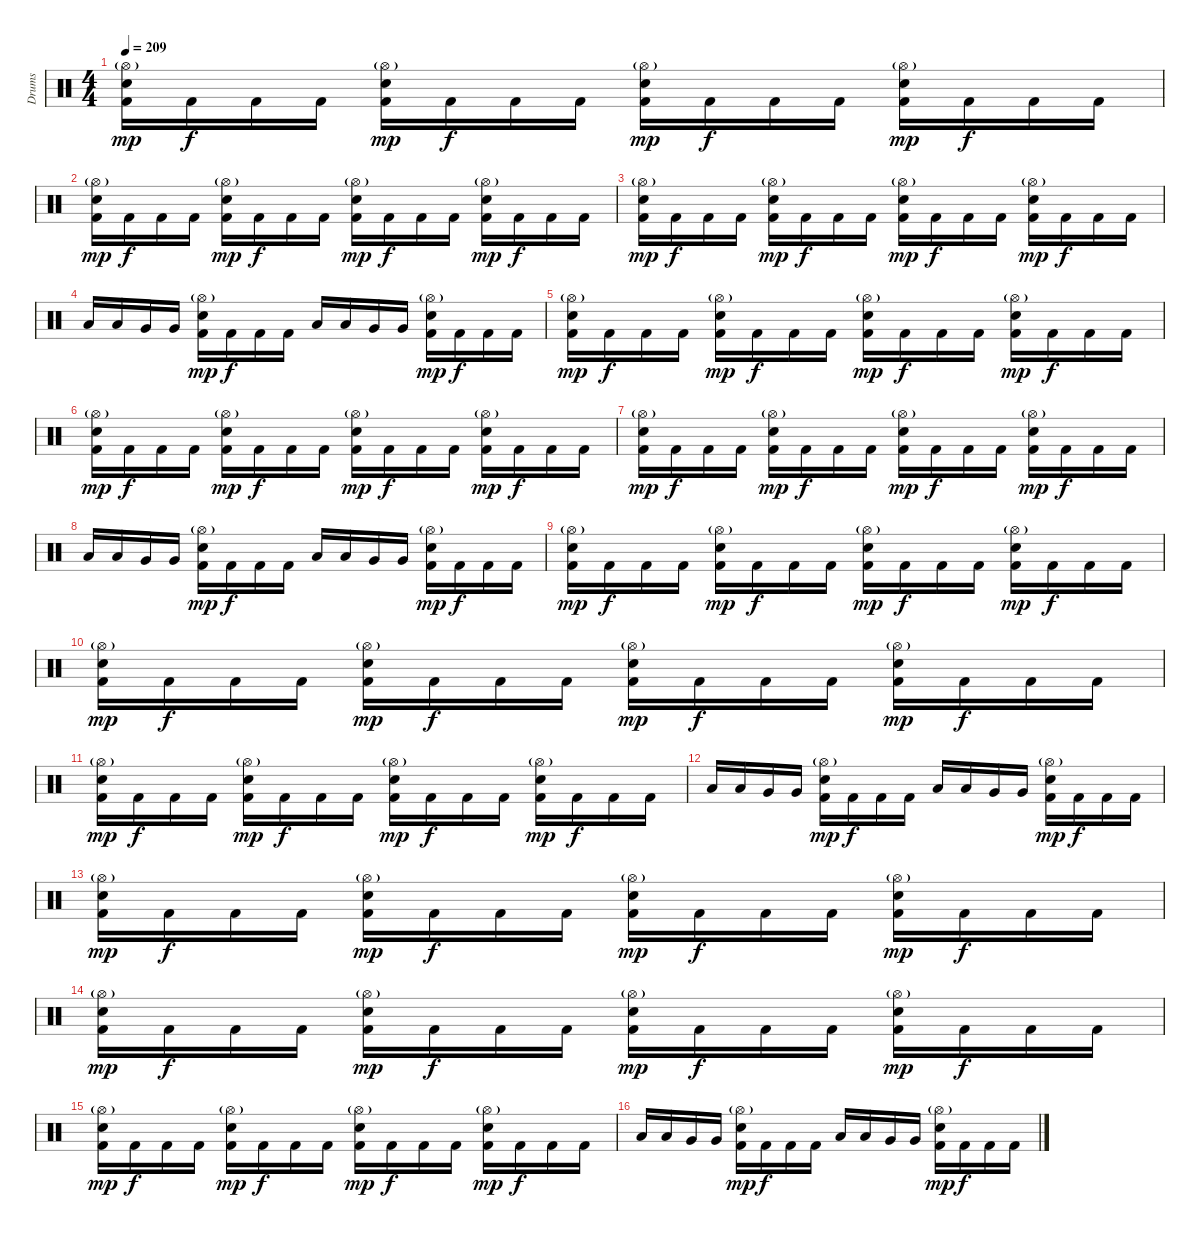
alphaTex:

\track ("Drums" "Drums") {instrument percussion}
\staff {score}
\articulation defaults
\ts (4 4)
\tempo 209
\clef neutral
\ks c
("Hi-Hat (open)"{g} "Snare (hit) 2" "Kick (hit) 2").16{dy mp} "Kick (hit) 2".16{dy f} "Kick (hit) 2".16 "Kick (hit) 2".16 ("Hi-Hat (open)"{g} "Snare (hit) 2" "Kick (hit) 2").16{dy mp} "Kick (hit) 2".16{dy f} "Kick (hit) 2".16 "Kick (hit) 2".16 ("Hi-Hat (open)"{g} "Snare (hit) 2" "Kick (hit) 2").16{dy mp} "Kick (hit) 2".16{dy f} "Kick (hit) 2".16 "Kick (hit) 2".16 ("Hi-Hat (open)"{g} "Snare (hit) 2" "Kick (hit) 2").16{dy mp} "Kick (hit) 2".16{dy f} "Kick (hit) 2".16 "Kick (hit) 2".16 |
("Hi-Hat (open)"{g} "Snare (hit) 2" "Kick (hit) 2").16{dy mp} "Kick (hit) 2".16{dy f} "Kick (hit) 2".16 "Kick (hit) 2".16 ("Hi-Hat (open)"{g} "Snare (hit) 2" "Kick (hit) 2").16{dy mp} "Kick (hit) 2".16{dy f} "Kick (hit) 2".16 "Kick (hit) 2".16 ("Hi-Hat (open)"{g} "Snare (hit) 2" "Kick (hit) 2").16{dy mp} "Kick (hit) 2".16{dy f} "Kick (hit) 2".16 "Kick (hit) 2".16 ("Hi-Hat (open)"{g} "Snare (hit) 2" "Kick (hit) 2").16{dy mp} "Kick (hit) 2".16{dy f} "Kick (hit) 2".16 "Kick (hit) 2".16 |
("Hi-Hat (open)"{g} "Snare (hit) 2" "Kick (hit) 2").16{dy mp} "Kick (hit) 2".16{dy f} "Kick (hit) 2".16 "Kick (hit) 2".16 ("Hi-Hat (open)"{g} "Snare (hit) 2" "Kick (hit) 2").16{dy mp} "Kick (hit) 2".16{dy f} "Kick (hit) 2".16 "Kick (hit) 2".16 ("Hi-Hat (open)"{g} "Snare (hit) 2" "Kick (hit) 2").16{dy mp} "Kick (hit) 2".16{dy f} "Kick (hit) 2".16 "Kick (hit) 2".16 ("Hi-Hat (open)"{g} "Snare (hit) 2" "Kick (hit) 2").16{dy mp} "Kick (hit) 2".16{dy f} "Kick (hit) 2".16 "Kick (hit) 2".16 |
"Low Tom (hit)".16 "Low Tom (hit)".16 "Very Low Tom (hit)".16 "Very Low Tom (hit)".16 ("Hi-Hat (open)"{g} "Snare (hit) 2" "Kick (hit) 2").16{dy mp} "Kick (hit) 2".16{dy f} "Kick (hit) 2".16 "Kick (hit) 2".16 "Low Tom (hit)".16 "Low Tom (hit)".16 "Very Low Tom (hit)".16 "Very Low Tom (hit)".16 ("Hi-Hat (open)"{g} "Snare (hit) 2" "Kick (hit) 2").16{dy mp} "Kick (hit) 2".16{dy f} "Kick (hit) 2".16 "Kick (hit) 2".16 |
("Hi-Hat (open)"{g} "Snare (hit) 2" "Kick (hit) 2").16{dy mp} "Kick (hit) 2".16{dy f} "Kick (hit) 2".16 "Kick (hit) 2".16 ("Hi-Hat (open)"{g} "Snare (hit) 2" "Kick (hit) 2").16{dy mp} "Kick (hit) 2".16{dy f} "Kick (hit) 2".16 "Kick (hit) 2".16 ("Hi-Hat (open)"{g} "Snare (hit) 2" "Kick (hit) 2").16{dy mp} "Kick (hit) 2".16{dy f} "Kick (hit) 2".16 "Kick (hit) 2".16 ("Hi-Hat (open)"{g} "Snare (hit) 2" "Kick (hit) 2").16{dy mp} "Kick (hit) 2".16{dy f} "Kick (hit) 2".16 "Kick (hit) 2".16 |
("Hi-Hat (open)"{g} "Snare (hit) 2" "Kick (hit) 2").16{dy mp} "Kick (hit) 2".16{dy f} "Kick (hit) 2".16 "Kick (hit) 2".16 ("Hi-Hat (open)"{g} "Snare (hit) 2" "Kick (hit) 2").16{dy mp} "Kick (hit) 2".16{dy f} "Kick (hit) 2".16 "Kick (hit) 2".16 ("Hi-Hat (open)"{g} "Snare (hit) 2" "Kick (hit) 2").16{dy mp} "Kick (hit) 2".16{dy f} "Kick (hit) 2".16 "Kick (hit) 2".16 ("Hi-Hat (open)"{g} "Snare (hit) 2" "Kick (hit) 2").16{dy mp} "Kick (hit) 2".16{dy f} "Kick (hit) 2".16 "Kick (hit) 2".16 |
("Hi-Hat (open)"{g} "Snare (hit) 2" "Kick (hit) 2").16{dy mp} "Kick (hit) 2".16{dy f} "Kick (hit) 2".16 "Kick (hit) 2".16 ("Hi-Hat (open)"{g} "Snare (hit) 2" "Kick (hit) 2").16{dy mp} "Kick (hit) 2".16{dy f} "Kick (hit) 2".16 "Kick (hit) 2".16 ("Hi-Hat (open)"{g} "Snare (hit) 2" "Kick (hit) 2").16{dy mp} "Kick (hit) 2".16{dy f} "Kick (hit) 2".16 "Kick (hit) 2".16 ("Hi-Hat (open)"{g} "Snare (hit) 2" "Kick (hit) 2").16{dy mp} "Kick (hit) 2".16{dy f} "Kick (hit) 2".16 "Kick (hit) 2".16 |
"Low Tom (hit)".16 "Low Tom (hit)".16 "Very Low Tom (hit)".16 "Very Low Tom (hit)".16 ("Hi-Hat (open)"{g} "Snare (hit) 2" "Kick (hit) 2").16{dy mp} "Kick (hit) 2".16{dy f} "Kick (hit) 2".16 "Kick (hit) 2".16 "Low Tom (hit)".16 "Low Tom (hit)".16 "Very Low Tom (hit)".16 "Very Low Tom (hit)".16 ("Hi-Hat (open)"{g} "Snare (hit) 2" "Kick (hit) 2").16{dy mp} "Kick (hit) 2".16{dy f} "Kick (hit) 2".16 "Kick (hit) 2".16 |
("Hi-Hat (open)"{g} "Snare (hit) 2" "Kick (hit) 2").16{dy mp} "Kick (hit) 2".16{dy f} "Kick (hit) 2".16 "Kick (hit) 2".16 ("Hi-Hat (open)"{g} "Snare (hit) 2" "Kick (hit) 2").16{dy mp} "Kick (hit) 2".16{dy f} "Kick (hit) 2".16 "Kick (hit) 2".16 ("Hi-Hat (open)"{g} "Snare (hit) 2" "Kick (hit) 2").16{dy mp} "Kick (hit) 2".16{dy f} "Kick (hit) 2".16 "Kick (hit) 2".16 ("Hi-Hat (open)"{g} "Snare (hit) 2" "Kick (hit) 2").16{dy mp} "Kick (hit) 2".16{dy f} "Kick (hit) 2".16 "Kick (hit) 2".16 |
("Hi-Hat (open)"{g} "Snare (hit) 2" "Kick (hit) 2").16{dy mp} "Kick (hit) 2".16{dy f} "Kick (hit) 2".16 "Kick (hit) 2".16 ("Hi-Hat (open)"{g} "Snare (hit) 2" "Kick (hit) 2").16{dy mp} "Kick (hit) 2".16{dy f} "Kick (hit) 2".16 "Kick (hit) 2".16 ("Hi-Hat (open)"{g} "Snare (hit) 2" "Kick (hit) 2").16{dy mp} "Kick (hit) 2".16{dy f} "Kick (hit) 2".16 "Kick (hit) 2".16 ("Hi-Hat (open)"{g} "Snare (hit) 2" "Kick (hit) 2").16{dy mp} "Kick (hit) 2".16{dy f} "Kick (hit) 2".16 "Kick (hit) 2".16 |
("Hi-Hat (open)"{g} "Snare (hit) 2" "Kick (hit) 2").16{dy mp} "Kick (hit) 2".16{dy f} "Kick (hit) 2".16 "Kick (hit) 2".16 ("Hi-Hat (open)"{g} "Snare (hit) 2" "Kick (hit) 2").16{dy mp} "Kick (hit) 2".16{dy f} "Kick (hit) 2".16 "Kick (hit) 2".16 ("Hi-Hat (open)"{g} "Snare (hit) 2" "Kick (hit) 2").16{dy mp} "Kick (hit) 2".16{dy f} "Kick (hit) 2".16 "Kick (hit) 2".16 ("Hi-Hat (open)"{g} "Snare (hit) 2" "Kick (hit) 2").16{dy mp} "Kick (hit) 2".16{dy f} "Kick (hit) 2".16 "Kick (hit) 2".16 |
"Low Tom (hit)".16 "Low Tom (hit)".16 "Very Low Tom (hit)".16 "Very Low Tom (hit)".16 ("Hi-Hat (open)"{g} "Snare (hit) 2" "Kick (hit) 2").16{dy mp} "Kick (hit) 2".16{dy f} "Kick (hit) 2".16 "Kick (hit) 2".16 "Low Tom (hit)".16 "Low Tom (hit)".16 "Very Low Tom (hit)".16 "Very Low Tom (hit)".16 ("Hi-Hat (open)"{g} "Snare (hit) 2" "Kick (hit) 2").16{dy mp} "Kick (hit) 2".16{dy f} "Kick (hit) 2".16 "Kick (hit) 2".16 |
("Hi-Hat (open)"{g} "Snare (hit) 2" "Kick (hit) 2").16{dy mp} "Kick (hit) 2".16{dy f} "Kick (hit) 2".16 "Kick (hit) 2".16 ("Hi-Hat (open)"{g} "Snare (hit) 2" "Kick (hit) 2").16{dy mp} "Kick (hit) 2".16{dy f} "Kick (hit) 2".16 "Kick (hit) 2".16 ("Hi-Hat (open)"{g} "Snare (hit) 2" "Kick (hit) 2").16{dy mp} "Kick (hit) 2".16{dy f} "Kick (hit) 2".16 "Kick (hit) 2".16 ("Hi-Hat (open)"{g} "Snare (hit) 2" "Kick (hit) 2").16{dy mp} "Kick (hit) 2".16{dy f} "Kick (hit) 2".16 "Kick (hit) 2".16 |
("Hi-Hat (open)"{g} "Snare (hit) 2" "Kick (hit) 2").16{dy mp} "Kick (hit) 2".16{dy f} "Kick (hit) 2".16 "Kick (hit) 2".16 ("Hi-Hat (open)"{g} "Snare (hit) 2" "Kick (hit) 2").16{dy mp} "Kick (hit) 2".16{dy f} "Kick (hit) 2".16 "Kick (hit) 2".16 ("Hi-Hat (open)"{g} "Snare (hit) 2" "Kick (hit) 2").16{dy mp} "Kick (hit) 2".16{dy f} "Kick (hit) 2".16 "Kick (hit) 2".16 ("Hi-Hat (open)"{g} "Snare (hit) 2" "Kick (hit) 2").16{dy mp} "Kick (hit) 2".16{dy f} "Kick (hit) 2".16 "Kick (hit) 2".16 |
("Hi-Hat (open)"{g} "Snare (hit) 2" "Kick (hit) 2").16{dy mp} "Kick (hit) 2".16{dy f} "Kick (hit) 2".16 "Kick (hit) 2".16 ("Hi-Hat (open)"{g} "Snare (hit) 2" "Kick (hit) 2").16{dy mp} "Kick (hit) 2".16{dy f} "Kick (hit) 2".16 "Kick (hit) 2".16 ("Hi-Hat (open)"{g} "Snare (hit) 2" "Kick (hit) 2").16{dy mp} "Kick (hit) 2".16{dy f} "Kick (hit) 2".16 "Kick (hit) 2".16 ("Hi-Hat (open)"{g} "Snare (hit) 2" "Kick (hit) 2").16{dy mp} "Kick (hit) 2".16{dy f} "Kick (hit) 2".16 "Kick (hit) 2".16 |
"Low Tom (hit)".16 "Low Tom (hit)".16 "Very Low Tom (hit)".16 "Very Low Tom (hit)".16 ("Hi-Hat (open)"{g} "Snare (hit) 2" "Kick (hit) 2").16{dy mp} "Kick (hit) 2".16{dy f} "Kick (hit) 2".16 "Kick (hit) 2".16 "Low Tom (hit)".16 "Low Tom (hit)".16 "Very Low Tom (hit)".16 "Very Low Tom (hit)".16 ("Hi-Hat (open)"{g} "Snare (hit) 2" "Kick (hit) 2").16{dy mp} "Kick (hit) 2".16{dy f} "Kick (hit) 2".16 "Kick (hit) 2".16
